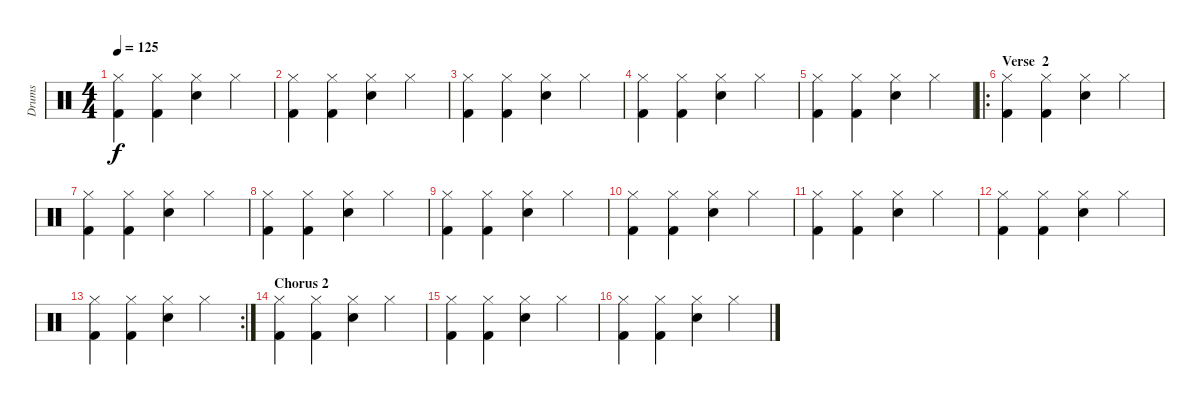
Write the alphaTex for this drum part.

\track ("Drums" "Drums") {instrument percussion}
\staff {score}
\articulation defaults
\ts (4 4)
\tempo 125
\clef neutral
\ks c
("Hi-Hat (closed)" "Kick (hit) 2").4{dy f} ("Hi-Hat (closed)" "Kick (hit) 2").4 ("Hi-Hat (closed)" "Snare (hit) 2").4 "Hi-Hat (closed)".4 |
("Hi-Hat (closed)" "Kick (hit) 2").4 ("Hi-Hat (closed)" "Kick (hit) 2").4 ("Hi-Hat (closed)" "Snare (hit) 2").4 "Hi-Hat (closed)".4 |
("Hi-Hat (closed)" "Kick (hit) 2").4 ("Hi-Hat (closed)" "Kick (hit) 2").4 ("Hi-Hat (closed)" "Snare (hit) 2").4 "Hi-Hat (closed)".4 |
("Hi-Hat (closed)" "Kick (hit) 2").4 ("Hi-Hat (closed)" "Kick (hit) 2").4 ("Hi-Hat (closed)" "Snare (hit) 2").4 "Hi-Hat (closed)".4 |
("Hi-Hat (closed)" "Kick (hit) 2").4 ("Hi-Hat (closed)" "Kick (hit) 2").4 ("Hi-Hat (closed)" "Snare (hit) 2").4 "Hi-Hat (closed)".4 |
\ro
\section ("" "Verse  2")
("Hi-Hat (closed)" "Kick (hit) 2").4 ("Hi-Hat (closed)" "Kick (hit) 2").4 ("Hi-Hat (closed)" "Snare (hit) 2").4 "Hi-Hat (closed)".4 |
("Hi-Hat (closed)" "Kick (hit) 2").4 ("Hi-Hat (closed)" "Kick (hit) 2").4 ("Hi-Hat (closed)" "Snare (hit) 2").4 "Hi-Hat (closed)".4 |
("Hi-Hat (closed)" "Kick (hit) 2").4 ("Hi-Hat (closed)" "Kick (hit) 2").4 ("Hi-Hat (closed)" "Snare (hit) 2").4 "Hi-Hat (closed)".4 |
("Hi-Hat (closed)" "Kick (hit) 2").4 ("Hi-Hat (closed)" "Kick (hit) 2").4 ("Hi-Hat (closed)" "Snare (hit) 2").4 "Hi-Hat (closed)".4 |
("Hi-Hat (closed)" "Kick (hit) 2").4 ("Hi-Hat (closed)" "Kick (hit) 2").4 ("Hi-Hat (closed)" "Snare (hit) 2").4 "Hi-Hat (closed)".4 |
("Hi-Hat (closed)" "Kick (hit) 2").4 ("Hi-Hat (closed)" "Kick (hit) 2").4 ("Hi-Hat (closed)" "Snare (hit) 2").4 "Hi-Hat (closed)".4 |
("Hi-Hat (closed)" "Kick (hit) 2").4 ("Hi-Hat (closed)" "Kick (hit) 2").4 ("Hi-Hat (closed)" "Snare (hit) 2").4 "Hi-Hat (closed)".4 |
\rc 2
("Hi-Hat (closed)" "Kick (hit) 2").4 ("Hi-Hat (closed)" "Kick (hit) 2").4 ("Hi-Hat (closed)" "Snare (hit) 2").4 "Hi-Hat (closed)".4 |
\section ("" "Chorus 2")
("Hi-Hat (closed)" "Kick (hit) 2").4 ("Hi-Hat (closed)" "Kick (hit) 2").4 ("Hi-Hat (closed)" "Snare (hit) 2").4 "Hi-Hat (closed)".4 |
("Hi-Hat (closed)" "Kick (hit) 2").4 ("Hi-Hat (closed)" "Kick (hit) 2").4 ("Hi-Hat (closed)" "Snare (hit) 2").4 "Hi-Hat (closed)".4 |
("Hi-Hat (closed)" "Kick (hit) 2").4 ("Hi-Hat (closed)" "Kick (hit) 2").4 ("Hi-Hat (closed)" "Snare (hit) 2").4 "Hi-Hat (closed)".4
